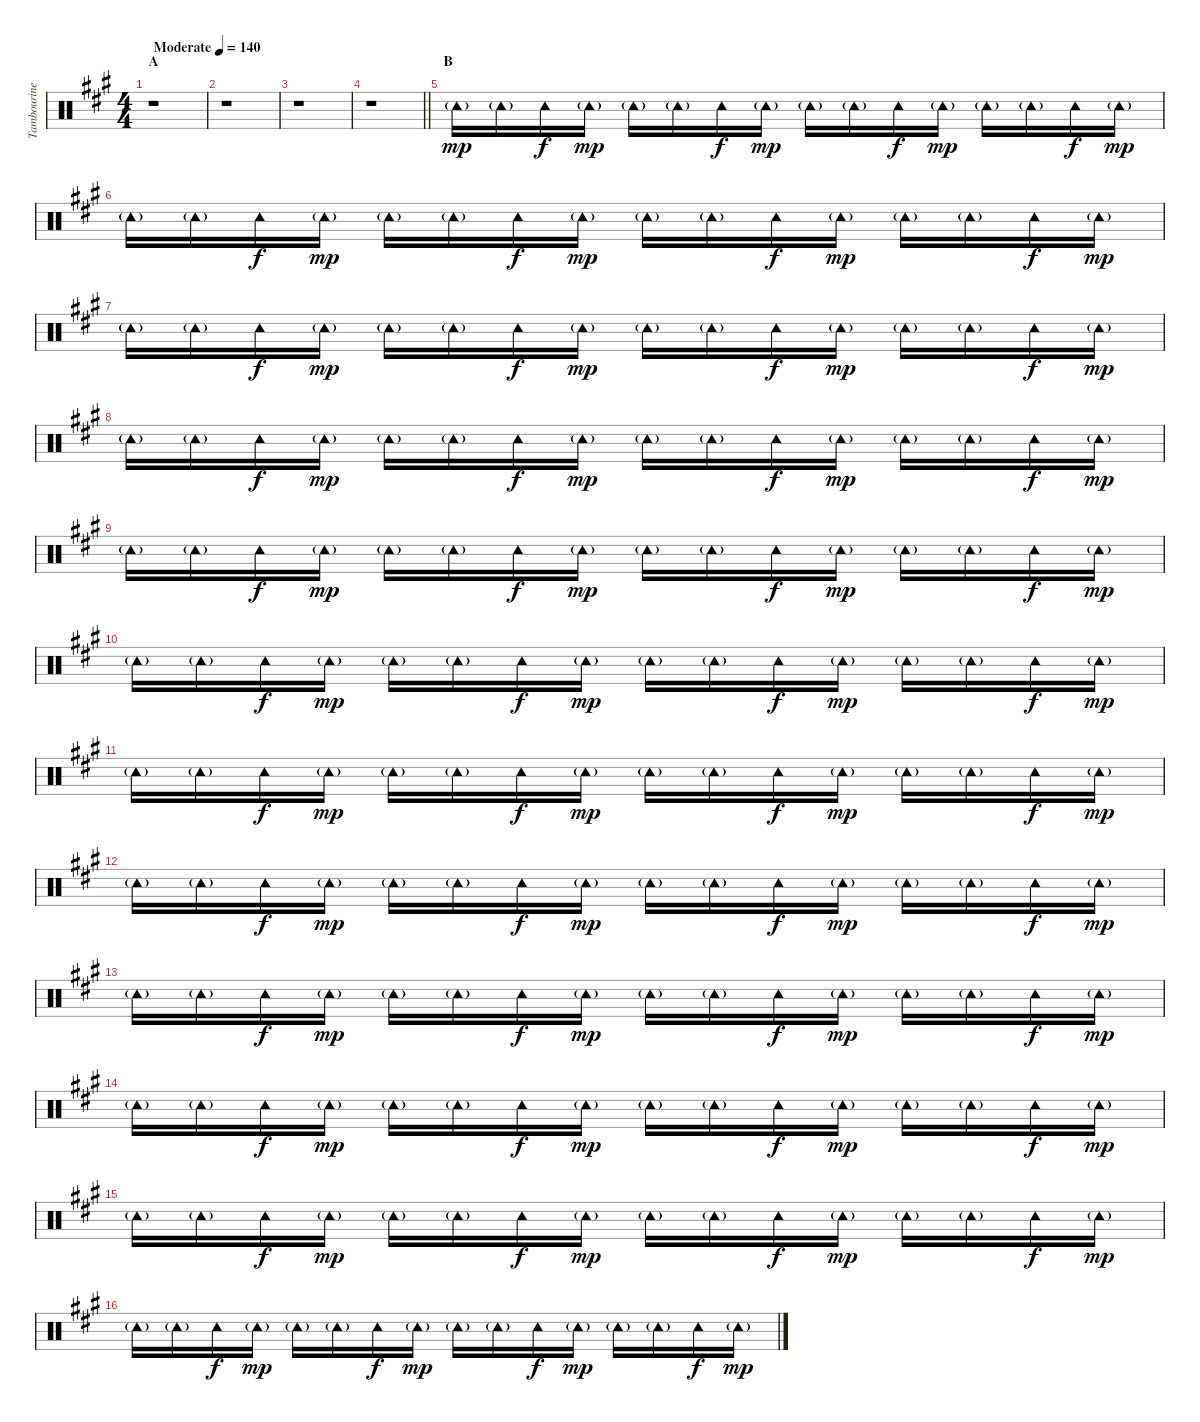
\track ("Tambourine" "Tambourine") {instrument percussion}
\staff {score}
\articulation defaults
\ts (4 4)
\section ("" "A")
\tempo (140 "Moderate")
\clef neutral
\ks a
r.1{dy mp} |
r.1 |
r.1 |
\barLineRight lightlight
r.1 |
\section ("" "B")
"Tambourine (hit)"{g}.16 "Tambourine (hit)"{g}.16 "Tambourine (hit)".16{dy f} "Tambourine (hit)"{g}.16{dy mp} "Tambourine (hit)"{g}.16 "Tambourine (hit)"{g}.16 "Tambourine (hit)".16{dy f} "Tambourine (hit)"{g}.16{dy mp} "Tambourine (hit)"{g}.16 "Tambourine (hit)"{g}.16 "Tambourine (hit)".16{dy f} "Tambourine (hit)"{g}.16{dy mp} "Tambourine (hit)"{g}.16 "Tambourine (hit)"{g}.16 "Tambourine (hit)".16{dy f} "Tambourine (hit)"{g}.16{dy mp} |
"Tambourine (hit)"{g}.16 "Tambourine (hit)"{g}.16 "Tambourine (hit)".16{dy f} "Tambourine (hit)"{g}.16{dy mp} "Tambourine (hit)"{g}.16 "Tambourine (hit)"{g}.16 "Tambourine (hit)".16{dy f} "Tambourine (hit)"{g}.16{dy mp} "Tambourine (hit)"{g}.16 "Tambourine (hit)"{g}.16 "Tambourine (hit)".16{dy f} "Tambourine (hit)"{g}.16{dy mp} "Tambourine (hit)"{g}.16 "Tambourine (hit)"{g}.16 "Tambourine (hit)".16{dy f} "Tambourine (hit)"{g}.16{dy mp} |
"Tambourine (hit)"{g}.16 "Tambourine (hit)"{g}.16 "Tambourine (hit)".16{dy f} "Tambourine (hit)"{g}.16{dy mp} "Tambourine (hit)"{g}.16 "Tambourine (hit)"{g}.16 "Tambourine (hit)".16{dy f} "Tambourine (hit)"{g}.16{dy mp} "Tambourine (hit)"{g}.16 "Tambourine (hit)"{g}.16 "Tambourine (hit)".16{dy f} "Tambourine (hit)"{g}.16{dy mp} "Tambourine (hit)"{g}.16 "Tambourine (hit)"{g}.16 "Tambourine (hit)".16{dy f} "Tambourine (hit)"{g}.16{dy mp} |
"Tambourine (hit)"{g}.16 "Tambourine (hit)"{g}.16 "Tambourine (hit)".16{dy f} "Tambourine (hit)"{g}.16{dy mp} "Tambourine (hit)"{g}.16 "Tambourine (hit)"{g}.16 "Tambourine (hit)".16{dy f} "Tambourine (hit)"{g}.16{dy mp} "Tambourine (hit)"{g}.16 "Tambourine (hit)"{g}.16 "Tambourine (hit)".16{dy f} "Tambourine (hit)"{g}.16{dy mp} "Tambourine (hit)"{g}.16 "Tambourine (hit)"{g}.16 "Tambourine (hit)".16{dy f} "Tambourine (hit)"{g}.16{dy mp} |
"Tambourine (hit)"{g}.16 "Tambourine (hit)"{g}.16 "Tambourine (hit)".16{dy f} "Tambourine (hit)"{g}.16{dy mp} "Tambourine (hit)"{g}.16 "Tambourine (hit)"{g}.16 "Tambourine (hit)".16{dy f} "Tambourine (hit)"{g}.16{dy mp} "Tambourine (hit)"{g}.16 "Tambourine (hit)"{g}.16 "Tambourine (hit)".16{dy f} "Tambourine (hit)"{g}.16{dy mp} "Tambourine (hit)"{g}.16 "Tambourine (hit)"{g}.16 "Tambourine (hit)".16{dy f} "Tambourine (hit)"{g}.16{dy mp} |
"Tambourine (hit)"{g}.16 "Tambourine (hit)"{g}.16 "Tambourine (hit)".16{dy f} "Tambourine (hit)"{g}.16{dy mp} "Tambourine (hit)"{g}.16 "Tambourine (hit)"{g}.16 "Tambourine (hit)".16{dy f} "Tambourine (hit)"{g}.16{dy mp} "Tambourine (hit)"{g}.16 "Tambourine (hit)"{g}.16 "Tambourine (hit)".16{dy f} "Tambourine (hit)"{g}.16{dy mp} "Tambourine (hit)"{g}.16 "Tambourine (hit)"{g}.16 "Tambourine (hit)".16{dy f} "Tambourine (hit)"{g}.16{dy mp} |
"Tambourine (hit)"{g}.16 "Tambourine (hit)"{g}.16 "Tambourine (hit)".16{dy f} "Tambourine (hit)"{g}.16{dy mp} "Tambourine (hit)"{g}.16 "Tambourine (hit)"{g}.16 "Tambourine (hit)".16{dy f} "Tambourine (hit)"{g}.16{dy mp} "Tambourine (hit)"{g}.16 "Tambourine (hit)"{g}.16 "Tambourine (hit)".16{dy f} "Tambourine (hit)"{g}.16{dy mp} "Tambourine (hit)"{g}.16 "Tambourine (hit)"{g}.16 "Tambourine (hit)".16{dy f} "Tambourine (hit)"{g}.16{dy mp} |
"Tambourine (hit)"{g}.16 "Tambourine (hit)"{g}.16 "Tambourine (hit)".16{dy f} "Tambourine (hit)"{g}.16{dy mp} "Tambourine (hit)"{g}.16 "Tambourine (hit)"{g}.16 "Tambourine (hit)".16{dy f} "Tambourine (hit)"{g}.16{dy mp} "Tambourine (hit)"{g}.16 "Tambourine (hit)"{g}.16 "Tambourine (hit)".16{dy f} "Tambourine (hit)"{g}.16{dy mp} "Tambourine (hit)"{g}.16 "Tambourine (hit)"{g}.16 "Tambourine (hit)".16{dy f} "Tambourine (hit)"{g}.16{dy mp} |
"Tambourine (hit)"{g}.16 "Tambourine (hit)"{g}.16 "Tambourine (hit)".16{dy f} "Tambourine (hit)"{g}.16{dy mp} "Tambourine (hit)"{g}.16 "Tambourine (hit)"{g}.16 "Tambourine (hit)".16{dy f} "Tambourine (hit)"{g}.16{dy mp} "Tambourine (hit)"{g}.16 "Tambourine (hit)"{g}.16 "Tambourine (hit)".16{dy f} "Tambourine (hit)"{g}.16{dy mp} "Tambourine (hit)"{g}.16 "Tambourine (hit)"{g}.16 "Tambourine (hit)".16{dy f} "Tambourine (hit)"{g}.16{dy mp} |
"Tambourine (hit)"{g}.16 "Tambourine (hit)"{g}.16 "Tambourine (hit)".16{dy f} "Tambourine (hit)"{g}.16{dy mp} "Tambourine (hit)"{g}.16 "Tambourine (hit)"{g}.16 "Tambourine (hit)".16{dy f} "Tambourine (hit)"{g}.16{dy mp} "Tambourine (hit)"{g}.16 "Tambourine (hit)"{g}.16 "Tambourine (hit)".16{dy f} "Tambourine (hit)"{g}.16{dy mp} "Tambourine (hit)"{g}.16 "Tambourine (hit)"{g}.16 "Tambourine (hit)".16{dy f} "Tambourine (hit)"{g}.16{dy mp} |
"Tambourine (hit)"{g}.16 "Tambourine (hit)"{g}.16 "Tambourine (hit)".16{dy f} "Tambourine (hit)"{g}.16{dy mp} "Tambourine (hit)"{g}.16 "Tambourine (hit)"{g}.16 "Tambourine (hit)".16{dy f} "Tambourine (hit)"{g}.16{dy mp} "Tambourine (hit)"{g}.16 "Tambourine (hit)"{g}.16 "Tambourine (hit)".16{dy f} "Tambourine (hit)"{g}.16{dy mp} "Tambourine (hit)"{g}.16 "Tambourine (hit)"{g}.16 "Tambourine (hit)".16{dy f} "Tambourine (hit)"{g}.16{dy mp} |
"Tambourine (hit)"{g}.16 "Tambourine (hit)"{g}.16 "Tambourine (hit)".16{dy f} "Tambourine (hit)"{g}.16{dy mp} "Tambourine (hit)"{g}.16 "Tambourine (hit)"{g}.16 "Tambourine (hit)".16{dy f} "Tambourine (hit)"{g}.16{dy mp} "Tambourine (hit)"{g}.16 "Tambourine (hit)"{g}.16 "Tambourine (hit)".16{dy f} "Tambourine (hit)"{g}.16{dy mp} "Tambourine (hit)"{g}.16 "Tambourine (hit)"{g}.16 "Tambourine (hit)".16{dy f} "Tambourine (hit)"{g}.16{dy mp}
